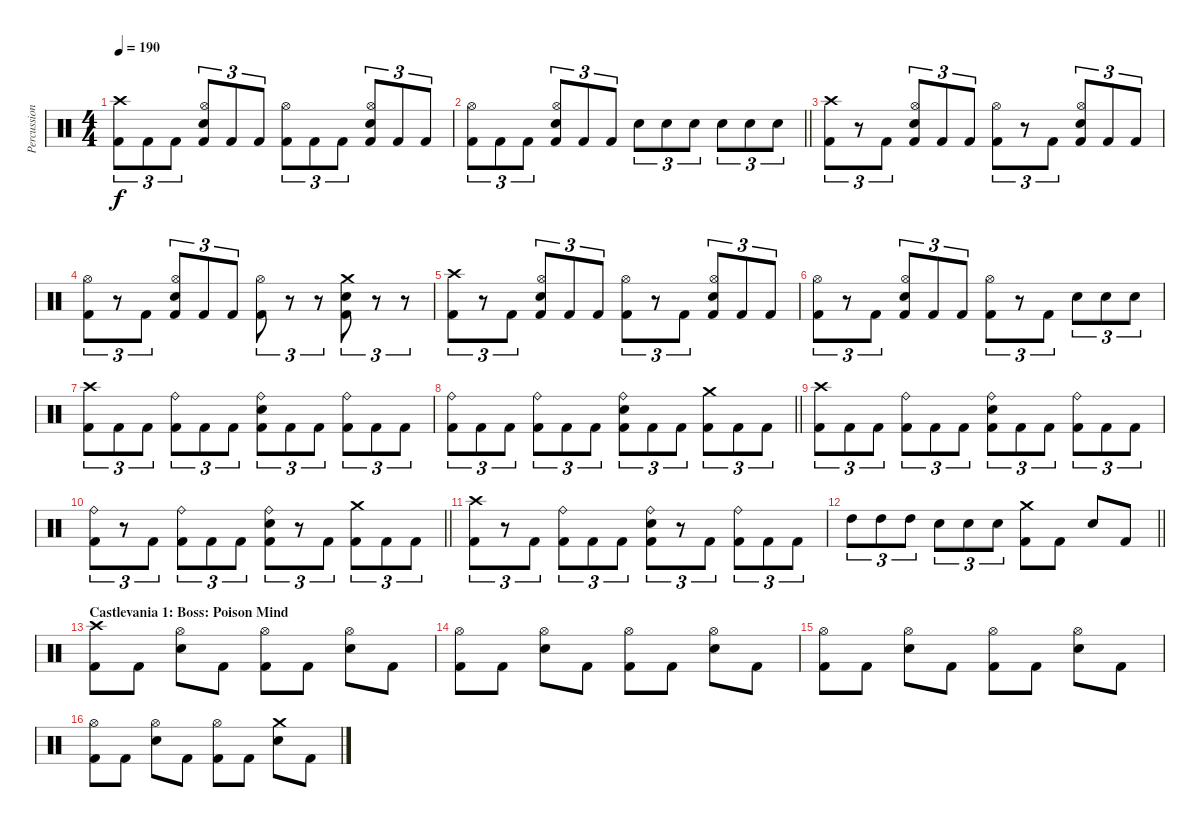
\track ("Percussion" "Percussion") {instrument percussion}
\staff {score}
\articulation defaults
\ts (4 4)
\tempo 190
\clef neutral
\ks c
("Crash high (hit)" "Kick (hit) 2").8{tu (3 2) dy f} "Kick (hit) 2".8{tu (3 2)} "Kick (hit) 2".8{tu (3 2)} ("Hi-Hat (open)" "Snare (hit) 2" "Kick (hit) 2").8{tu (3 2)} "Kick (hit) 2".8{tu (3 2)} "Kick (hit) 2".8{tu (3 2)} ("Hi-Hat (open)" "Kick (hit) 2").8{tu (3 2)} "Kick (hit) 2".8{tu (3 2)} "Kick (hit) 2".8{tu (3 2)} ("Hi-Hat (open)" "Snare (hit) 2" "Kick (hit) 2").8{tu (3 2)} "Kick (hit) 2".8{tu (3 2)} "Kick (hit) 2".8{tu (3 2)} |
\barLineRight lightlight
("Hi-Hat (open)" "Kick (hit) 2").8{tu (3 2)} "Kick (hit) 2".8{tu (3 2)} "Kick (hit) 2".8{tu (3 2)} ("Hi-Hat (open)" "Snare (hit) 2" "Kick (hit) 2").8{tu (3 2)} "Kick (hit) 2".8{tu (3 2)} "Kick (hit) 2".8{tu (3 2)} "Snare (hit) 2".8{tu (3 2)} "Snare (hit) 2".8{tu (3 2)} "Snare (hit) 2".8{tu (3 2)} "Snare (hit) 2".8{tu (3 2)} "Snare (hit) 2".8{tu (3 2)} "Snare (hit) 2".8{tu (3 2)} |
\section ("" "")
("Crash high (hit)" "Kick (hit) 2").8{tu (3 2)} r.8{tu (3 2)} "Kick (hit) 2".8{tu (3 2)} ("Hi-Hat (open)" "Snare (hit) 2" "Kick (hit) 2").8{tu (3 2)} "Kick (hit) 2".8{tu (3 2)} "Kick (hit) 2".8{tu (3 2)} ("Hi-Hat (open)" "Kick (hit) 2").8{tu (3 2)} r.8{tu (3 2)} "Kick (hit) 2".8{tu (3 2)} ("Hi-Hat (open)" "Snare (hit) 2" "Kick (hit) 2").8{tu (3 2)} "Kick (hit) 2".8{tu (3 2)} "Kick (hit) 2".8{tu (3 2)} |
("Hi-Hat (open)" "Kick (hit) 2").8{tu (3 2)} r.8{tu (3 2)} "Kick (hit) 2".8{tu (3 2)} ("Hi-Hat (open)" "Snare (hit) 2" "Kick (hit) 2").8{tu (3 2)} "Kick (hit) 2".8{tu (3 2)} "Kick (hit) 2".8{tu (3 2)} ("Hi-Hat (open)" "Kick (hit) 2").8{tu (3 2)} r.8{tu (3 2)} r.8{tu (3 2)} ("Crash medium (hit)" "Snare (hit) 2" "Kick (hit) 2").8{tu (3 2)} r.8{tu (3 2)} r.8{tu (3 2)} |
("Crash high (hit)" "Kick (hit) 2").8{tu (3 2)} r.8{tu (3 2)} "Kick (hit) 2".8{tu (3 2)} ("Hi-Hat (open)" "Snare (hit) 2" "Kick (hit) 2").8{tu (3 2)} "Kick (hit) 2".8{tu (3 2)} "Kick (hit) 2".8{tu (3 2)} ("Hi-Hat (open)" "Kick (hit) 2").8{tu (3 2)} r.8{tu (3 2)} "Kick (hit) 2".8{tu (3 2)} ("Hi-Hat (open)" "Snare (hit) 2" "Kick (hit) 2").8{tu (3 2)} "Kick (hit) 2".8{tu (3 2)} "Kick (hit) 2".8{tu (3 2)} |
("Hi-Hat (open)" "Kick (hit) 2").8{tu (3 2)} r.8{tu (3 2)} "Kick (hit) 2".8{tu (3 2)} ("Hi-Hat (open)" "Snare (hit) 2" "Kick (hit) 2").8{tu (3 2)} "Kick (hit) 2".8{tu (3 2)} "Kick (hit) 2".8{tu (3 2)} ("Hi-Hat (open)" "Kick (hit) 2").8{tu (3 2)} r.8{tu (3 2)} "Kick (hit) 2".8{tu (3 2)} "Snare (hit) 2".8{tu (3 2)} "Snare (hit) 2".8{tu (3 2)} "Snare (hit) 2".8{tu (3 2)} |
("Crash high (hit)" "Kick (hit) 2").8{tu (3 2)} "Kick (hit) 2".8{tu (3 2)} "Kick (hit) 2".8{tu (3 2)} ("Ride (bell)" "Kick (hit) 2").8{tu (3 2)} "Kick (hit) 2".8{tu (3 2)} "Kick (hit) 2".8{tu (3 2)} ("Ride (bell)" "Snare (hit) 2" "Kick (hit) 2").8{tu (3 2)} "Kick (hit) 2".8{tu (3 2)} "Kick (hit) 2".8{tu (3 2)} ("Ride (bell)" "Kick (hit) 2").8{tu (3 2)} "Kick (hit) 2".8{tu (3 2)} "Kick (hit) 2".8{tu (3 2)} |
\barLineRight lightlight
("Ride (bell)" "Kick (hit) 2").8{tu (3 2)} "Kick (hit) 2".8{tu (3 2)} "Kick (hit) 2".8{tu (3 2)} ("Ride (bell)" "Kick (hit) 2").8{tu (3 2)} "Kick (hit) 2".8{tu (3 2)} "Kick (hit) 2".8{tu (3 2)} ("Ride (bell)" "Snare (hit) 2" "Kick (hit) 2").8{tu (3 2)} "Kick (hit) 2".8{tu (3 2)} "Kick (hit) 2".8{tu (3 2)} ("Crash medium (hit)" "Kick (hit) 2").8{tu (3 2)} "Kick (hit) 2".8{tu (3 2)} "Kick (hit) 2".8{tu (3 2)} |
("Crash high (hit)" "Kick (hit) 2").8{tu (3 2)} "Kick (hit) 2".8{tu (3 2)} "Kick (hit) 2".8{tu (3 2)} ("Ride (bell)" "Kick (hit) 2").8{tu (3 2)} "Kick (hit) 2".8{tu (3 2)} "Kick (hit) 2".8{tu (3 2)} ("Ride (bell)" "Snare (hit) 2" "Kick (hit) 2").8{tu (3 2)} "Kick (hit) 2".8{tu (3 2)} "Kick (hit) 2".8{tu (3 2)} ("Ride (bell)" "Kick (hit) 2").8{tu (3 2)} "Kick (hit) 2".8{tu (3 2)} "Kick (hit) 2".8{tu (3 2)} |
\barLineRight lightlight
("Ride (bell)" "Kick (hit) 2").8{tu (3 2)} r.8{tu (3 2)} "Kick (hit) 2".8{tu (3 2)} ("Ride (bell)" "Kick (hit) 2").8{tu (3 2)} "Kick (hit) 2".8{tu (3 2)} "Kick (hit) 2".8{tu (3 2)} ("Ride (bell)" "Snare (hit) 2" "Kick (hit) 2").8{tu (3 2)} r.8{tu (3 2)} "Kick (hit) 2".8{tu (3 2)} ("Crash medium (hit)" "Kick (hit) 2").8{tu (3 2)} "Kick (hit) 2".8{tu (3 2)} "Kick (hit) 2".8{tu (3 2)} |
("Crash high (hit)" "Kick (hit) 2").8{tu (3 2)} r.8{tu (3 2)} "Kick (hit) 2".8{tu (3 2)} ("Ride (bell)" "Kick (hit) 2").8{tu (3 2)} "Kick (hit) 2".8{tu (3 2)} "Kick (hit) 2".8{tu (3 2)} ("Ride (bell)" "Snare (hit) 2" "Kick (hit) 2").8{tu (3 2)} r.8{tu (3 2)} "Kick (hit) 2".8{tu (3 2)} ("Ride (bell)" "Kick (hit) 2").8{tu (3 2)} "Kick (hit) 2".8{tu (3 2)} "Kick (hit) 2".8{tu (3 2)} |
\barLineRight lightlight "High Tom (hit)".8{tu (3 2)} "High Tom (hit)".8{tu (3 2)} "High Tom (hit)".8{tu (3 2)} "Snare (hit) 2".8{tu (3 2)} "Snare (hit) 2".8{tu (3 2)} "Snare (hit) 2".8{tu (3 2)}
("Crash medium (hit)" "Kick (hit) 2").8 "Kick (hit) 2".8 "Snare (hit) 2".8 "Kick (hit) 2".8 |
\section ("" "Castlevania 1: Boss: Poison Mind")
("Crash high (hit)" "Kick (hit) 2").8 "Kick (hit) 2".8 ("Hi-Hat (open)" "Snare (hit) 2").8 "Kick (hit) 2".8 ("Hi-Hat (open)" "Kick (hit) 2").8 "Kick (hit) 2".8 ("Hi-Hat (open)" "Snare (hit) 2").8 "Kick (hit) 2".8 |
("Hi-Hat (open)" "Kick (hit) 2").8 "Kick (hit) 2".8 ("Hi-Hat (open)" "Snare (hit) 2").8 "Kick (hit) 2".8 ("Hi-Hat (open)" "Kick (hit) 2").8 "Kick (hit) 2".8 ("Hi-Hat (open)" "Snare (hit) 2").8 "Kick (hit) 2".8 |
("Hi-Hat (open)" "Kick (hit) 2").8 "Kick (hit) 2".8 ("Hi-Hat (open)" "Snare (hit) 2").8 "Kick (hit) 2".8 ("Hi-Hat (open)" "Kick (hit) 2").8 "Kick (hit) 2".8 ("Hi-Hat (open)" "Snare (hit) 2").8 "Kick (hit) 2".8 |
("Hi-Hat (open)" "Kick (hit) 2").8 "Kick (hit) 2".8 ("Hi-Hat (open)" "Snare (hit) 2").8 "Kick (hit) 2".8 ("Hi-Hat (open)" "Kick (hit) 2").8 "Kick (hit) 2".8 ("Crash medium (hit)" "Snare (hit) 2").8 "Kick (hit) 2".8
